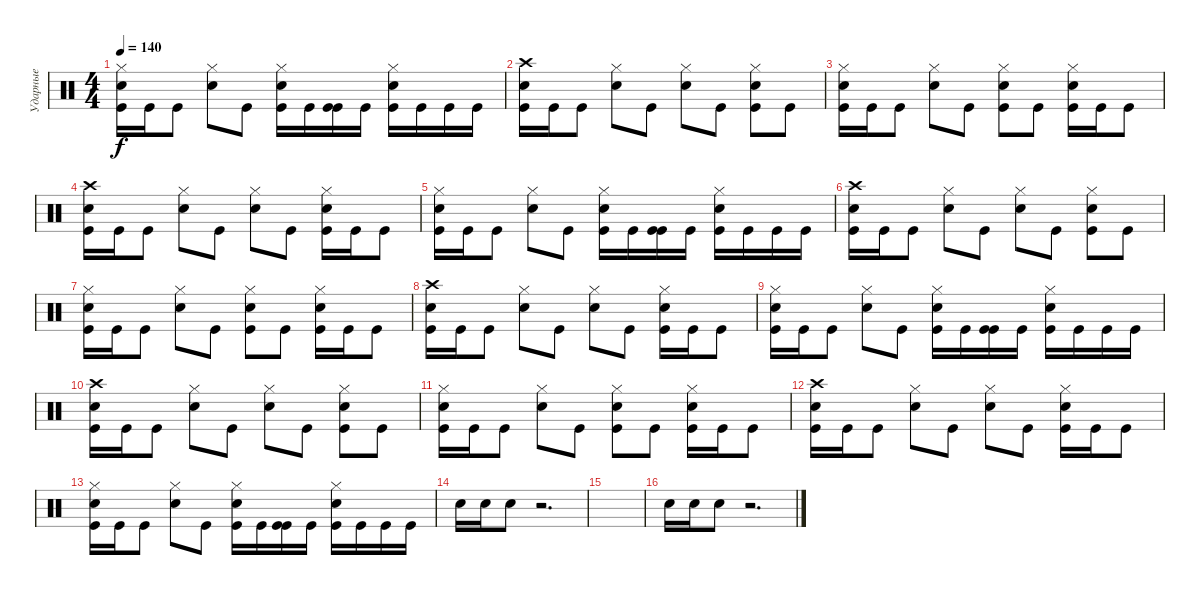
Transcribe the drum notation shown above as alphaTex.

\track ("Ударные" "Ударные") {instrument percussion}
\staff {score}
\articulation defaults
\ts (4 4)
\tempo 140
\clef neutral
\ks c
("Hi-Hat (closed)" "Electric Snare (hit)" "Kick (hit)").16{dy f} "Kick (hit)".16 "Kick (hit)".8 ("Hi-Hat (closed)" "Electric Snare (hit)").8 "Kick (hit)".8 ("Hi-Hat (closed)" "Electric Snare (hit)" "Kick (hit)").16 "Kick (hit)".16 ("Kick (hit)" "Kick (hit)").16 "Kick (hit)".16 ("Hi-Hat (closed)" "Electric Snare (hit)" "Kick (hit)").16 "Kick (hit)".16 "Kick (hit)".16 "Kick (hit)".16 |
("Crash high (hit)" "Electric Snare (hit)" "Kick (hit)").16 "Kick (hit)".16 "Kick (hit)".8 ("Hi-Hat (closed)" "Electric Snare (hit)").8 "Kick (hit)".8 ("Hi-Hat (closed)" "Electric Snare (hit)").8 "Kick (hit)".8 ("Hi-Hat (closed)" "Electric Snare (hit)" "Kick (hit)").8 "Kick (hit)".8 |
("Hi-Hat (closed)" "Electric Snare (hit)" "Kick (hit)").16 "Kick (hit)".16 "Kick (hit)".8 ("Hi-Hat (closed)" "Electric Snare (hit)").8 "Kick (hit)".8 ("Hi-Hat (closed)" "Electric Snare (hit)" "Kick (hit)").8 "Kick (hit)".8 ("Hi-Hat (closed)" "Electric Snare (hit)" "Kick (hit)").16 "Kick (hit)".16 "Kick (hit)".8 |
("Crash high (hit)" "Electric Snare (hit)" "Kick (hit)").16 "Kick (hit)".16 "Kick (hit)".8 ("Hi-Hat (closed)" "Electric Snare (hit)").8 "Kick (hit)".8 ("Hi-Hat (closed)" "Electric Snare (hit)").8 "Kick (hit)".8 ("Hi-Hat (closed)" "Electric Snare (hit)" "Kick (hit)").16 "Kick (hit)".16 "Kick (hit)".8 |
("Hi-Hat (closed)" "Electric Snare (hit)" "Kick (hit)").16 "Kick (hit)".16 "Kick (hit)".8 ("Hi-Hat (closed)" "Electric Snare (hit)").8 "Kick (hit)".8 ("Hi-Hat (closed)" "Electric Snare (hit)" "Kick (hit)").16 "Kick (hit)".16 ("Kick (hit)" "Kick (hit)").16 "Kick (hit)".16 ("Hi-Hat (closed)" "Electric Snare (hit)" "Kick (hit)").16 "Kick (hit)".16 "Kick (hit)".16 "Kick (hit)".16 |
("Crash high (hit)" "Electric Snare (hit)" "Kick (hit)").16 "Kick (hit)".16 "Kick (hit)".8 ("Hi-Hat (closed)" "Electric Snare (hit)").8 "Kick (hit)".8 ("Hi-Hat (closed)" "Electric Snare (hit)").8 "Kick (hit)".8 ("Hi-Hat (closed)" "Electric Snare (hit)" "Kick (hit)").8 "Kick (hit)".8 |
("Hi-Hat (closed)" "Electric Snare (hit)" "Kick (hit)").16 "Kick (hit)".16 "Kick (hit)".8 ("Hi-Hat (closed)" "Electric Snare (hit)").8 "Kick (hit)".8 ("Hi-Hat (closed)" "Electric Snare (hit)" "Kick (hit)").8 "Kick (hit)".8 ("Hi-Hat (closed)" "Electric Snare (hit)" "Kick (hit)").16 "Kick (hit)".16 "Kick (hit)".8 |
("Crash high (hit)" "Electric Snare (hit)" "Kick (hit)").16 "Kick (hit)".16 "Kick (hit)".8 ("Hi-Hat (closed)" "Electric Snare (hit)").8 "Kick (hit)".8 ("Hi-Hat (closed)" "Electric Snare (hit)").8 "Kick (hit)".8 ("Hi-Hat (closed)" "Electric Snare (hit)" "Kick (hit)").16 "Kick (hit)".16 "Kick (hit)".8 |
("Hi-Hat (closed)" "Electric Snare (hit)" "Kick (hit)").16 "Kick (hit)".16 "Kick (hit)".8 ("Hi-Hat (closed)" "Electric Snare (hit)").8 "Kick (hit)".8 ("Hi-Hat (closed)" "Electric Snare (hit)" "Kick (hit)").16 "Kick (hit)".16 ("Kick (hit)" "Kick (hit)").16 "Kick (hit)".16 ("Hi-Hat (closed)" "Electric Snare (hit)" "Kick (hit)").16 "Kick (hit)".16 "Kick (hit)".16 "Kick (hit)".16 |
("Crash high (hit)" "Electric Snare (hit)" "Kick (hit)").16 "Kick (hit)".16 "Kick (hit)".8 ("Hi-Hat (closed)" "Electric Snare (hit)").8 "Kick (hit)".8 ("Hi-Hat (closed)" "Electric Snare (hit)").8 "Kick (hit)".8 ("Hi-Hat (closed)" "Electric Snare (hit)" "Kick (hit)").8 "Kick (hit)".8 |
("Hi-Hat (closed)" "Electric Snare (hit)" "Kick (hit)").16 "Kick (hit)".16 "Kick (hit)".8 ("Hi-Hat (closed)" "Electric Snare (hit)").8 "Kick (hit)".8 ("Hi-Hat (closed)" "Electric Snare (hit)" "Kick (hit)").8 "Kick (hit)".8 ("Hi-Hat (closed)" "Electric Snare (hit)" "Kick (hit)").16 "Kick (hit)".16 "Kick (hit)".8 |
("Crash high (hit)" "Electric Snare (hit)" "Kick (hit)").16 "Kick (hit)".16 "Kick (hit)".8 ("Hi-Hat (closed)" "Electric Snare (hit)").8 "Kick (hit)".8 ("Hi-Hat (closed)" "Electric Snare (hit)").8 "Kick (hit)".8 ("Hi-Hat (closed)" "Electric Snare (hit)" "Kick (hit)").16 "Kick (hit)".16 "Kick (hit)".8 |
("Hi-Hat (closed)" "Electric Snare (hit)" "Kick (hit)").16 "Kick (hit)".16 "Kick (hit)".8 ("Hi-Hat (closed)" "Electric Snare (hit)").8 "Kick (hit)".8 ("Hi-Hat (closed)" "Electric Snare (hit)" "Kick (hit)").16 "Kick (hit)".16 ("Kick (hit)" "Kick (hit)").16 "Kick (hit)".16 ("Hi-Hat (closed)" "Electric Snare (hit)" "Kick (hit)").16 "Kick (hit)".16 "Kick (hit)".16 "Kick (hit)".16 |
"Electric Snare (hit)".16 "Electric Snare (hit)".16 "Electric Snare (hit)".8 r.2{d} |
|
"Electric Snare (hit)".16 "Electric Snare (hit)".16 "Electric Snare (hit)".8 r.2{d}
